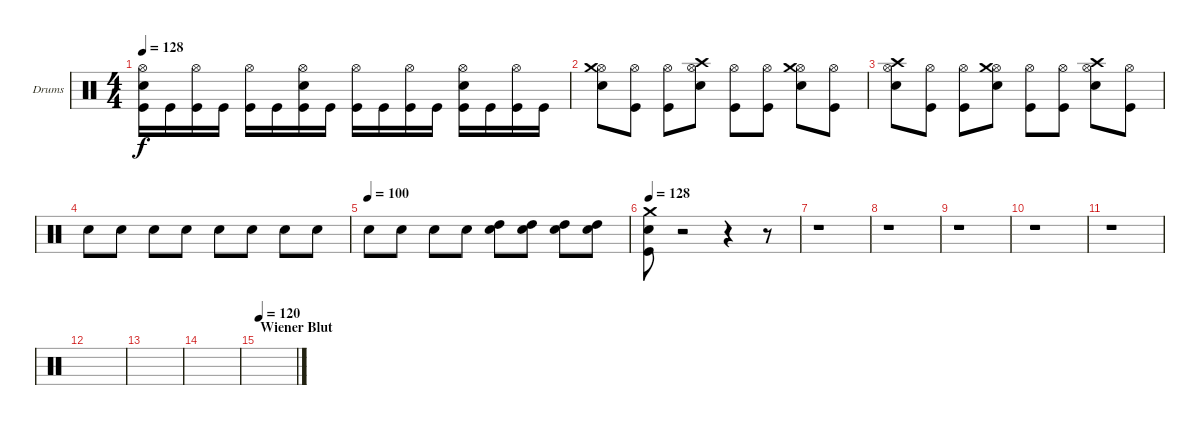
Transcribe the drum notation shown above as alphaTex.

\bracketExtendMode groupsimilarinstruments
\firstSystemTrackNameOrientation horizontal
\otherSystemsTrackNameOrientation horizontal
\track ("Drumkit (Christoph)" "Drums") {instrument percussion}
\staff {score}
\articulation defaults
\ts (4 4)
\tempo 128
\clef neutral
\ks c
("Snare (hit) 2" "Hi-Hat (open)" "Kick (hit)").16{dy f} "Kick (hit)".16 ("Kick (hit)" "Hi-Hat (open)").16 "Kick (hit)".16 ("Kick (hit)" "Hi-Hat (open)").16 "Kick (hit)".16 ("Snare (hit) 2" "Hi-Hat (open)" "Kick (hit)").16 "Kick (hit)".16 ("Kick (hit)" "Hi-Hat (open)").16 "Kick (hit)".16 ("Kick (hit)" "Hi-Hat (open)").16 "Kick (hit)".16 ("Snare (hit) 2" "Hi-Hat (open)" "Kick (hit)").16 "Kick (hit)".16 ("Kick (hit)" "Hi-Hat (open)").16 "Kick (hit)".16 |
("Snare (hit) 2" "Hi-Hat (open)" "Crash medium (hit)").8 ("Kick (hit)" "Hi-Hat (open)").8 ("Kick (hit)" "Hi-Hat (open)").8 ("Snare (hit) 2" "Hi-Hat (open)" "Crash high (hit)").8 ("Kick (hit)" "Hi-Hat (open)").8 ("Kick (hit)" "Hi-Hat (open)").8 ("Snare (hit) 2" "Hi-Hat (open)" "Crash medium (hit)").8 ("Kick (hit)" "Hi-Hat (open)").8 |
("Snare (hit) 2" "Hi-Hat (open)" "Crash high (hit)").8 ("Kick (hit)" "Hi-Hat (open)").8 ("Kick (hit)" "Hi-Hat (open)").8 ("Snare (hit) 2" "Hi-Hat (open)" "Crash medium (hit)").8 ("Kick (hit)" "Hi-Hat (open)").8 ("Kick (hit)" "Hi-Hat (open)").8 ("Snare (hit) 2" "Hi-Hat (open)" "Crash high (hit)").8 ("Kick (hit)" "Hi-Hat (open)").8 |
"Snare (hit) 2".8 "Snare (hit) 2".8 "Snare (hit) 2".8 "Snare (hit) 2".8 "Snare (hit) 2".8 "Snare (hit) 2".8 "Snare (hit) 2".8 "Snare (hit) 2".8 |
\tempo (100)
"Snare (hit) 2".8 "Snare (hit) 2".8 "Snare (hit) 2".8 "Snare (hit) 2".8 ("Snare (hit) 2" "High Tom (hit)").8 ("Snare (hit) 2" "High Tom (hit)").8 ("Snare (hit) 2" "High Tom (hit)").8 ("Snare (hit) 2" "High Tom (hit)").8 |
\tempo 128
("Crash medium (hit)" "Snare (hit) 2" "Kick (hit)").8 r.2 r.4 r.8 |
r.1 |
r.1 |
r.1 |
r.1 |
r.1 |
|
|
|
\section ("" "Wiener Blut")
\tempo 120
